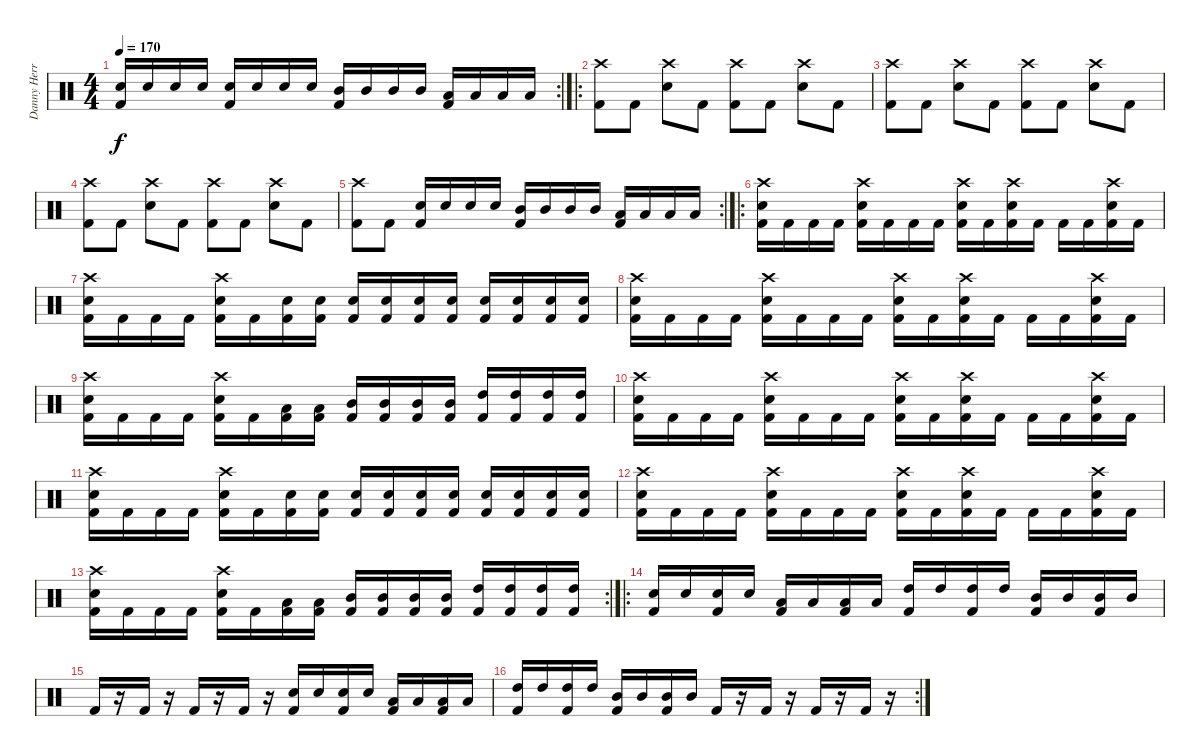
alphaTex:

\track ("Danny Herrera" "Danny Herr") {instrument percussion}
\staff {score}
\articulation defaults
\rc 2
\ts (4 4)
\tempo 170
\clef neutral
\ks c
("Snare (hit) 2" "Kick (hit) 2").16{dy f} "Snare (hit) 2".16 "Snare (hit) 2".16 "Snare (hit) 2".16 ("Electric Snare (hit)" "Kick (hit) 2").16 "Electric Snare (hit)".16 "Electric Snare (hit)".16 "Electric Snare (hit)".16 ("Mid Tom (hit)" "Kick (hit) 2").16 "Mid Tom (hit)".16 "Mid Tom (hit)".16 "Mid Tom (hit)".16 ("Low Tom (hit)" "Kick (hit) 2").16 "Low Tom (hit)".16 "Low Tom (hit)".16 "Low Tom (hit)".16 |
\ro
("Crash high (hit)" "Kick (hit) 2").8 "Kick (hit) 2".8 ("Crash high (hit)" "Electric Snare (hit)").8 "Kick (hit) 2".8 ("Crash high (hit)" "Kick (hit) 2").8 "Kick (hit) 2".8 ("Crash high (hit)" "Electric Snare (hit)").8 "Kick (hit) 2".8 |
("Crash high (hit)" "Kick (hit) 2").8 "Kick (hit) 2".8 ("Crash high (hit)" "Electric Snare (hit)").8 "Kick (hit) 2".8 ("Crash high (hit)" "Kick (hit) 2").8 "Kick (hit) 2".8 ("Crash high (hit)" "Electric Snare (hit)").8 "Kick (hit) 2".8 |
("Crash high (hit)" "Kick (hit) 2").8 "Kick (hit) 2".8 ("Crash high (hit)" "Electric Snare (hit)").8 "Kick (hit) 2".8 ("Crash high (hit)" "Kick (hit) 2").8 "Kick (hit) 2".8 ("Crash high (hit)" "Electric Snare (hit)").8 "Kick (hit) 2".8 |
\rc 2
("Crash high (hit)" "Kick (hit) 2").8 "Kick (hit) 2".8 ("Electric Snare (hit)" "Kick (hit) 2").16 "Electric Snare (hit)".16 "Electric Snare (hit)".16 "Electric Snare (hit)".16 ("Mid Tom (hit)" "Kick (hit) 2").16 "Mid Tom (hit)".16 "Mid Tom (hit)".16 "Mid Tom (hit)".16 ("Low Tom (hit)" "Kick (hit) 2").16 "Low Tom (hit)".16 "Low Tom (hit)".16 "Low Tom (hit)".16 |
\ro
("Crash high (hit)" "Electric Snare (hit)" "Kick (hit) 2").16 "Kick (hit) 2".16 "Kick (hit) 2".16 "Kick (hit) 2".16 ("Crash high (hit)" "Electric Snare (hit)" "Kick (hit) 2").16 "Kick (hit) 2".16 "Kick (hit) 2".16 "Kick (hit) 2".16 ("Crash high (hit)" "Electric Snare (hit)" "Kick (hit) 2").16 "Kick (hit) 2".16 ("Crash high (hit)" "Electric Snare (hit)" "Kick (hit) 2").16 "Kick (hit) 2".16 "Kick (hit) 2".16 "Kick (hit) 2".16 ("Crash high (hit)" "Electric Snare (hit)" "Kick (hit) 2").16 "Kick (hit) 2".16 |
("Crash high (hit)" "Electric Snare (hit)" "Kick (hit) 2").16 "Kick (hit) 2".16 "Kick (hit) 2".16 "Kick (hit) 2".16 ("Crash high (hit)" "Electric Snare (hit)" "Kick (hit) 2").16 "Kick (hit) 2".16 ("Electric Snare (hit)" "Kick (hit) 2").16 ("Electric Snare (hit)" "Kick (hit) 2").16 ("Snare (hit) 2" "Kick (hit) 2").16 ("Snare (hit) 2" "Kick (hit) 2").16 ("Snare (hit) 2" "Kick (hit) 2").16 ("Snare (hit) 2" "Kick (hit) 2").16 ("Electric Snare (hit)" "Kick (hit) 2").16 ("Electric Snare (hit)" "Kick (hit) 2").16 ("Electric Snare (hit)" "Kick (hit) 2").16 ("Electric Snare (hit)" "Kick (hit) 2").16 |
("Crash high (hit)" "Electric Snare (hit)" "Kick (hit) 2").16 "Kick (hit) 2".16 "Kick (hit) 2".16 "Kick (hit) 2".16 ("Crash high (hit)" "Electric Snare (hit)" "Kick (hit) 2").16 "Kick (hit) 2".16 "Kick (hit) 2".16 "Kick (hit) 2".16 ("Crash high (hit)" "Electric Snare (hit)" "Kick (hit) 2").16 "Kick (hit) 2".16 ("Crash high (hit)" "Electric Snare (hit)" "Kick (hit) 2").16 "Kick (hit) 2".16 "Kick (hit) 2".16 "Kick (hit) 2".16 ("Crash high (hit)" "Electric Snare (hit)" "Kick (hit) 2").16 "Kick (hit) 2".16 |
("Crash high (hit)" "Electric Snare (hit)" "Kick (hit) 2").16 "Kick (hit) 2".16 "Kick (hit) 2".16 "Kick (hit) 2".16 ("Crash high (hit)" "Electric Snare (hit)" "Kick (hit) 2").16 "Kick (hit) 2".16 ("Low Tom (hit)" "Kick (hit) 2").16 ("Low Tom (hit)" "Kick (hit) 2").16 ("Mid Tom (hit)" "Kick (hit) 2").16 ("Mid Tom (hit)" "Kick (hit) 2").16 ("Mid Tom (hit)" "Kick (hit) 2").16 ("Mid Tom (hit)" "Kick (hit) 2").16 ("High Tom (hit)" "Kick (hit) 2").16 ("High Tom (hit)" "Kick (hit) 2").16 ("High Tom (hit)" "Kick (hit) 2").16 ("High Tom (hit)" "Kick (hit) 2").16 |
("Crash high (hit)" "Electric Snare (hit)" "Kick (hit) 2").16 "Kick (hit) 2".16 "Kick (hit) 2".16 "Kick (hit) 2".16 ("Crash high (hit)" "Electric Snare (hit)" "Kick (hit) 2").16 "Kick (hit) 2".16 "Kick (hit) 2".16 "Kick (hit) 2".16 ("Crash high (hit)" "Electric Snare (hit)" "Kick (hit) 2").16 "Kick (hit) 2".16 ("Crash high (hit)" "Electric Snare (hit)" "Kick (hit) 2").16 "Kick (hit) 2".16 "Kick (hit) 2".16 "Kick (hit) 2".16 ("Crash high (hit)" "Electric Snare (hit)" "Kick (hit) 2").16 "Kick (hit) 2".16 |
("Crash high (hit)" "Electric Snare (hit)" "Kick (hit) 2").16 "Kick (hit) 2".16 "Kick (hit) 2".16 "Kick (hit) 2".16 ("Crash high (hit)" "Electric Snare (hit)" "Kick (hit) 2").16 "Kick (hit) 2".16 ("Electric Snare (hit)" "Kick (hit) 2").16 ("Electric Snare (hit)" "Kick (hit) 2").16 ("Snare (hit) 2" "Kick (hit) 2").16 ("Snare (hit) 2" "Kick (hit) 2").16 ("Snare (hit) 2" "Kick (hit) 2").16 ("Snare (hit) 2" "Kick (hit) 2").16 ("Electric Snare (hit)" "Kick (hit) 2").16 ("Electric Snare (hit)" "Kick (hit) 2").16 ("Electric Snare (hit)" "Kick (hit) 2").16 ("Electric Snare (hit)" "Kick (hit) 2").16 |
("Crash high (hit)" "Electric Snare (hit)" "Kick (hit) 2").16 "Kick (hit) 2".16 "Kick (hit) 2".16 "Kick (hit) 2".16 ("Crash high (hit)" "Electric Snare (hit)" "Kick (hit) 2").16 "Kick (hit) 2".16 "Kick (hit) 2".16 "Kick (hit) 2".16 ("Crash high (hit)" "Electric Snare (hit)" "Kick (hit) 2").16 "Kick (hit) 2".16 ("Crash high (hit)" "Electric Snare (hit)" "Kick (hit) 2").16 "Kick (hit) 2".16 "Kick (hit) 2".16 "Kick (hit) 2".16 ("Crash high (hit)" "Electric Snare (hit)" "Kick (hit) 2").16 "Kick (hit) 2".16 |
\rc 2
("Crash high (hit)" "Electric Snare (hit)" "Kick (hit) 2").16 "Kick (hit) 2".16 "Kick (hit) 2".16 "Kick (hit) 2".16 ("Crash high (hit)" "Electric Snare (hit)" "Kick (hit) 2").16 "Kick (hit) 2".16 ("Low Tom (hit)" "Kick (hit) 2").16 ("Low Tom (hit)" "Kick (hit) 2").16 ("Mid Tom (hit)" "Kick (hit) 2").16 ("Mid Tom (hit)" "Kick (hit) 2").16 ("Mid Tom (hit)" "Kick (hit) 2").16 ("Mid Tom (hit)" "Kick (hit) 2").16 ("High Tom (hit)" "Kick (hit) 2").16 ("High Tom (hit)" "Kick (hit) 2").16 ("High Tom (hit)" "Kick (hit) 2").16 ("High Tom (hit)" "Kick (hit) 2").16 |
\ro
("Electric Snare (hit)" "Kick (hit) 2").16 "Electric Snare (hit)".16 ("Electric Snare (hit)" "Kick (hit) 2").16 "Electric Snare (hit)".16 ("Low Tom (hit)" "Kick (hit) 2").16 "Low Tom (hit)".16 ("Low Tom (hit)" "Kick (hit) 2").16 "Low Tom (hit)".16 ("High Tom (hit)" "Kick (hit) 2").16 "High Tom (hit)".16 ("High Tom (hit)" "Kick (hit) 2").16 "High Tom (hit)".16 ("Mid Tom (hit)" "Kick (hit) 2").16 "Mid Tom (hit)".16 ("Mid Tom (hit)" "Kick (hit) 2").16 "Mid Tom (hit)".16 |
"Kick (hit) 2".16 r.16 "Kick (hit) 2".16 r.16 "Kick (hit) 2".16 r.16 "Kick (hit) 2".16 r.16 ("Electric Snare (hit)" "Kick (hit) 2").16 "Electric Snare (hit)".16 ("Electric Snare (hit)" "Kick (hit) 2").16 "Electric Snare (hit)".16 ("Low Tom (hit)" "Kick (hit) 2").16 "Low Tom (hit)".16 ("Low Tom (hit)" "Kick (hit) 2").16 "Low Tom (hit)".16 |
\rc 2
("High Tom (hit)" "Kick (hit) 2").16 "High Tom (hit)".16 ("High Tom (hit)" "Kick (hit) 2").16 "High Tom (hit)".16 ("Mid Tom (hit)" "Kick (hit) 2").16 "Mid Tom (hit)".16 ("Mid Tom (hit)" "Kick (hit) 2").16 "Mid Tom (hit)".16 "Kick (hit) 2".16 r.16 "Kick (hit) 2".16 r.16 "Kick (hit) 2".16 r.16 "Kick (hit) 2".16 r.16
